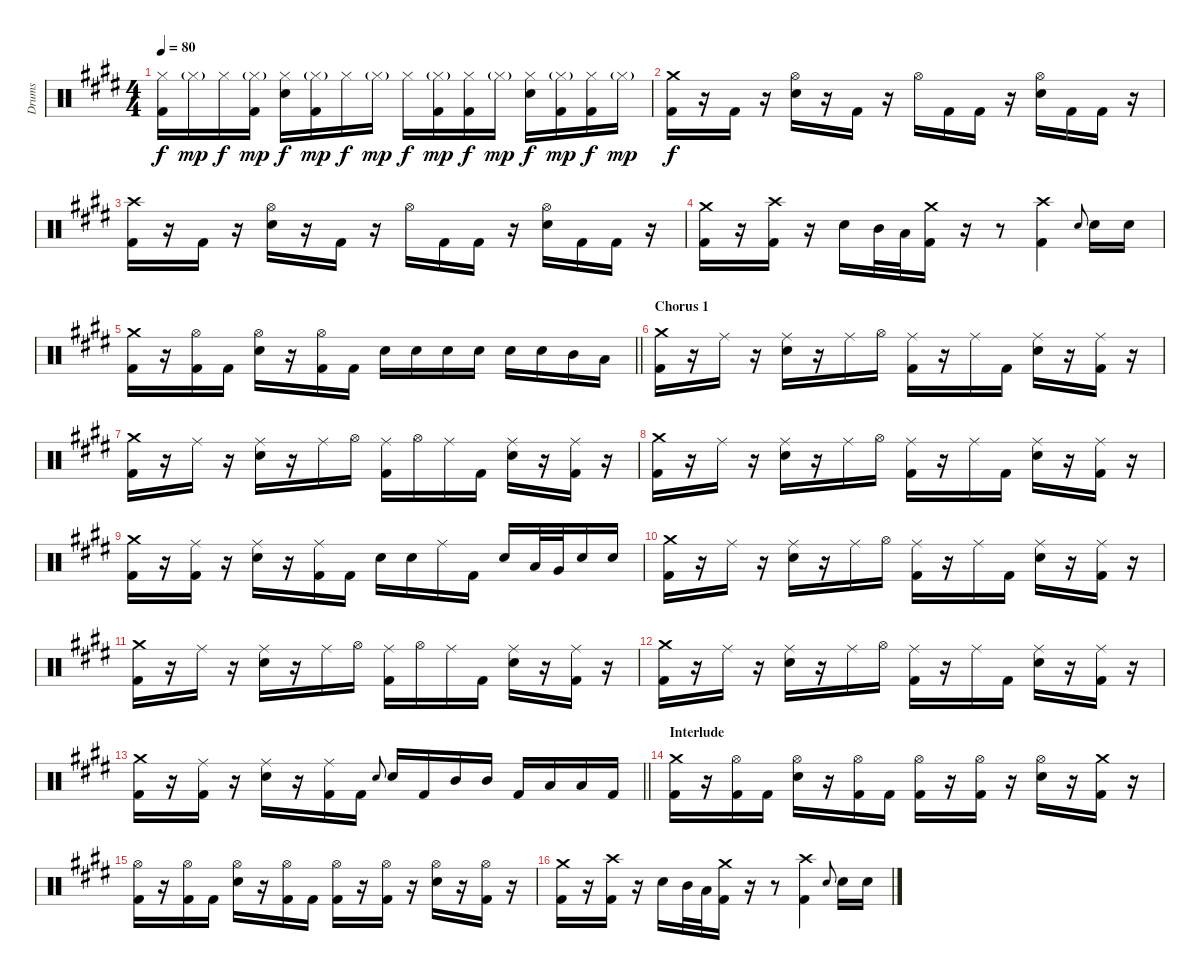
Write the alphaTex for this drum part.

\track ("Drums" "Drums") {instrument percussion}
\staff {score}
\articulation defaults
\ts (4 4)
\tempo 80
\clef neutral
\ks e
("Hi-Hat (closed)" "Kick (hit) 2").16{dy f} "Hi-Hat (closed)"{g}.16{dy mp} "Hi-Hat (closed)".16{dy f} ("Hi-Hat (closed)"{g} "Kick (hit) 2").16{dy mp} ("Hi-Hat (closed)" "Snare (hit) 2").16{dy f} ("Hi-Hat (closed)"{g} "Kick (hit) 2").16{dy mp} "Hi-Hat (closed)".16{dy f} "Hi-Hat (closed)"{g}.16{dy mp} "Hi-Hat (closed)".16{dy f} ("Hi-Hat (closed)"{g} "Kick (hit) 2").16{dy mp} ("Hi-Hat (closed)" "Kick (hit) 2").16{dy f} "Hi-Hat (closed)"{g}.16{dy mp} ("Hi-Hat (closed)" "Snare (hit) 2").16{dy f} ("Hi-Hat (closed)"{g} "Kick (hit) 2").16{dy mp} ("Hi-Hat (closed)" "Kick (hit) 2").16{dy f} "Hi-Hat (closed)"{g}.16{dy mp} |
("Crash medium (hit)" "Kick (hit) 2").16{dy f} r.16 "Kick (hit) 2".16 r.16 ("Hi-Hat (open)" "Snare (hit) 2").16 r.16 "Kick (hit) 2".16 r.16 "Hi-Hat (open)".16 "Kick (hit) 2".16 "Kick (hit) 2".16 r.16 ("Hi-Hat (open)" "Snare (hit) 2").16 "Kick (hit) 2".16 "Kick (hit) 2".16 r.16 |
("Crash high (hit)" "Kick (hit) 2").16 r.16 "Kick (hit) 2".16 r.16 ("Hi-Hat (open)" "Snare (hit) 2").16 r.16 "Kick (hit) 2".16 r.16 "Hi-Hat (open)".16 "Kick (hit) 2".16 "Kick (hit) 2".16 r.16 ("Hi-Hat (open)" "Snare (hit) 2").16 "Kick (hit) 2".16 "Kick (hit) 2".16 r.16 |
("Crash medium (hit)" "Kick (hit) 2").16 r.16 ("Crash high (hit)" "Kick (hit) 2").16 r.16 "Snare (hit) 2".16 "Mid Tom (hit)".32 "Low Tom (hit)".32 ("Crash medium (hit)" "Kick (hit) 2").16 r.16 r.8 ("Crash high (hit)" "Kick (hit) 2").4 "Snare (hit) 2".8{gr onbeat} "Snare (hit) 2".16 "Snare (hit) 2".16 |
\barLineRight lightlight
("Crash medium (hit)" "Kick (hit) 2").16 r.16 ("Hi-Hat (open)" "Kick (hit) 2").16 "Kick (hit) 2".16 ("Hi-Hat (open)" "Snare (hit) 2").16 r.16 ("Hi-Hat (open)" "Kick (hit) 2").16 "Kick (hit) 2".16 "Snare (hit) 2".16 "Snare (hit) 2".16 "Snare (hit) 2".16 "Snare (hit) 2".16 "Snare (hit) 2".16 "Snare (hit) 2".16 "Mid Tom (hit)".16 "Low Tom (hit)".16 |
\section ("" "Chorus 1")
("Crash medium (hit)" "Kick (hit) 2").16 r.16 "Ride (middle)".16 r.16 ("Ride (middle)" "Snare (hit) 2").16 r.16 "Ride (middle)".16 "Hi-Hat (open)".16 ("Ride (middle)" "Kick (hit) 2").16 r.16 "Ride (middle)".16 "Kick (hit) 2".16 ("Ride (middle)" "Snare (hit) 2").16 r.16 ("Ride (middle)" "Kick (hit) 2").16 r.16 |
("Crash medium (hit)" "Kick (hit) 2").16 r.16 "Ride (middle)".16 r.16 ("Ride (middle)" "Snare (hit) 2").16 r.16 "Ride (middle)".16 "Hi-Hat (open)".16 ("Ride (middle)" "Kick (hit) 2").16 "Hi-Hat (open)".16 "Ride (middle)".16 "Kick (hit) 2".16 ("Ride (middle)" "Snare (hit) 2").16 r.16 ("Ride (middle)" "Kick (hit) 2").16 r.16 |
("Crash medium (hit)" "Kick (hit) 2").16 r.16 "Ride (middle)".16 r.16 ("Ride (middle)" "Snare (hit) 2").16 r.16 "Ride (middle)".16 "Hi-Hat (open)".16 ("Ride (middle)" "Kick (hit) 2").16 r.16 "Ride (middle)".16 "Kick (hit) 2".16 ("Ride (middle)" "Snare (hit) 2").16 r.16 ("Ride (middle)" "Kick (hit) 2").16 r.16 |
("Crash medium (hit)" "Kick (hit) 2").16 r.16 ("Ride (middle)" "Kick (hit) 2").16 r.16 ("Ride (middle)" "Snare (hit) 2").16 r.16 ("Ride (middle)" "Kick (hit) 2").16 "Kick (hit) 2".16 "Snare (hit) 2".16 "Snare (hit) 2".16 "Ride (middle)".16 "Kick (hit) 2".16 "Snare (hit) 2".16 "Low Tom (hit)".32 "Very Low Tom (hit)".32 "Snare (hit) 2".16 "Snare (hit) 2".16 |
("Crash medium (hit)" "Kick (hit) 2").16 r.16 "Ride (middle)".16 r.16 ("Ride (middle)" "Snare (hit) 2").16 r.16 "Ride (middle)".16 "Hi-Hat (open)".16 ("Ride (middle)" "Kick (hit) 2").16 r.16 "Ride (middle)".16 "Kick (hit) 2".16 ("Ride (middle)" "Snare (hit) 2").16 r.16 ("Ride (middle)" "Kick (hit) 2").16 r.16 |
("Crash medium (hit)" "Kick (hit) 2").16 r.16 "Ride (middle)".16 r.16 ("Ride (middle)" "Snare (hit) 2").16 r.16 "Ride (middle)".16 "Hi-Hat (open)".16 ("Ride (middle)" "Kick (hit) 2").16 "Hi-Hat (open)".16 "Ride (middle)".16 "Kick (hit) 2".16 ("Ride (middle)" "Snare (hit) 2").16 r.16 ("Ride (middle)" "Kick (hit) 2").16 r.16 |
("Crash medium (hit)" "Kick (hit) 2").16 r.16 "Ride (middle)".16 r.16 ("Ride (middle)" "Snare (hit) 2").16 r.16 "Ride (middle)".16 "Hi-Hat (open)".16 ("Ride (middle)" "Kick (hit) 2").16 r.16 "Ride (middle)".16 "Kick (hit) 2".16 ("Ride (middle)" "Snare (hit) 2").16 r.16 ("Ride (middle)" "Kick (hit) 2").16 r.16 |
\barLineRight lightlight
("Crash medium (hit)" "Kick (hit) 2").16 r.16 ("Ride (middle)" "Kick (hit) 2").16 r.16 ("Ride (middle)" "Snare (hit) 2").16 r.16 ("Ride (middle)" "Kick (hit) 2").16 "Kick (hit) 2".16 "Snare (hit) 2".8{gr onbeat} "Snare (hit) 2".16 "Kick (hit) 2".16 "Mid Tom (hit)".16 "Mid Tom (hit)".16 "Kick (hit) 2".16 "Low Tom (hit)".16 "Low Tom (hit)".16 "Kick (hit) 2".16 |
\section ("" "Interlude")
("Crash medium (hit)" "Kick (hit) 2").16 r.16 ("Hi-Hat (open)" "Kick (hit) 2").16 "Kick (hit) 2".16 ("Hi-Hat (open)" "Snare (hit) 2").16 r.16 ("Hi-Hat (open)" "Kick (hit) 2").16 "Kick (hit) 2".16 ("Hi-Hat (open)" "Kick (hit) 2").16 r.16 ("Hi-Hat (open)" "Kick (hit) 2").16 r.16 ("Hi-Hat (open)" "Snare (hit) 2").16 r.16 ("Crash medium (hit)" "Kick (hit) 2").16 r.16 |
("Hi-Hat (open)" "Kick (hit) 2").16 r.16 ("Hi-Hat (open)" "Kick (hit) 2").16 "Kick (hit) 2".16 ("Hi-Hat (open)" "Snare (hit) 2").16 r.16 ("Hi-Hat (open)" "Kick (hit) 2").16 "Kick (hit) 2".16 ("Hi-Hat (open)" "Kick (hit) 2").16 r.16 ("Hi-Hat (open)" "Kick (hit) 2").16 r.16 ("Hi-Hat (open)" "Snare (hit) 2").16 r.16 ("Hi-Hat (open)" "Kick (hit) 2").16 r.16 |
("Crash medium (hit)" "Kick (hit) 2").16 r.16 ("Crash high (hit)" "Kick (hit) 2").16 r.16 "Snare (hit) 2".16 "Mid Tom (hit)".32 "Low Tom (hit)".32 ("Crash medium (hit)" "Kick (hit) 2").16 r.16 r.8 ("Crash high (hit)" "Kick (hit) 2").4 "Snare (hit) 2".8{gr onbeat} "Snare (hit) 2".16 "Snare (hit) 2".16
